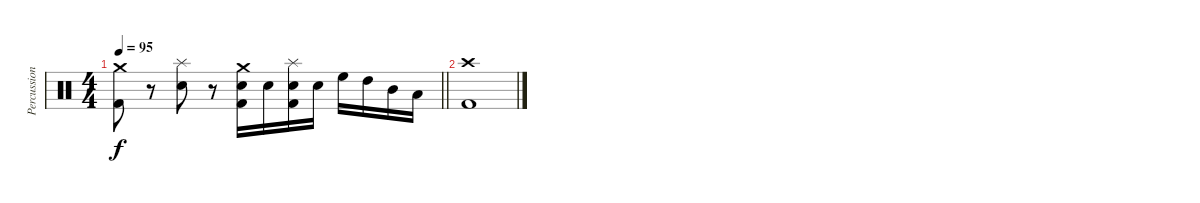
\track ("Percussion" "Percussion") {instrument percussion}
\staff {score}
\articulation defaults
\ts (4 4)
\tempo 95
\clef neutral
\barLineRight lightlight
\ks c
("Crash medium (hit)" "Kick (hit) 2").8{dy f} r.8 ("Splash (hit)" "Snare (hit) 2").8 r.8 ("Crash medium (hit)" "Snare (hit) 2" "Kick (hit) 2").16 "Snare (hit) 2".16 ("Splash (hit)" "Snare (hit) 2" "Kick (hit) 2").16 "Snare (hit) 2".16 "High Floor Tom (hit)".16 "High Tom (hit)".16 "Mid Tom (hit)".16 "Low Tom (hit)".16 |
("Crash high (hit)" "Kick (hit) 2").1
